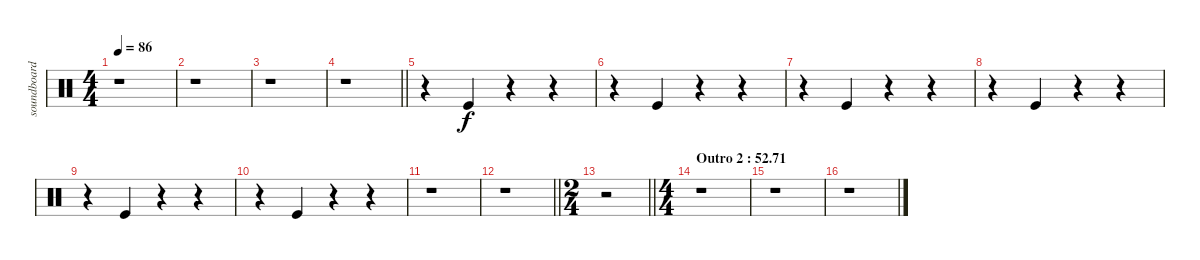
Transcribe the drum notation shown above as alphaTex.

\track ("soundboard" "soundboard") {instrument percussion}
\staff {score}
\articulation defaults
\ts (4 4)
\tempo 86
\clef neutral
\ks aminor
r.1{dy ff} |
r.1 |
r.1 |
\barLineRight lightlight
r.1 |
r.4 "Kick (hit)".4{dy f} r.4 r.4 |
r.4 "Kick (hit)".4 r.4 r.4 |
r.4 "Kick (hit)".4 r.4 r.4 |
r.4 "Kick (hit)".4 r.4 r.4 |
r.4 "Kick (hit)".4 r.4 r.4 |
r.4 "Kick (hit)".4 r.4 r.4 |
r.1 |
\barLineRight lightlight
r.1 |
\ts (2 4)
\barLineRight lightlight
r.2 |
\ts (4 4)
\section ("" "Outro 2 : 52.71")
r.1 |
r.1 |
r.1
